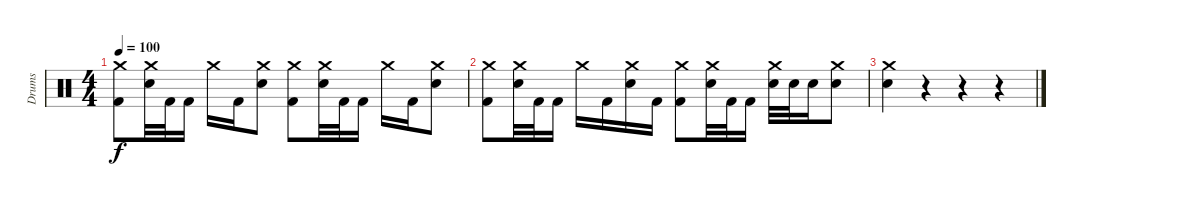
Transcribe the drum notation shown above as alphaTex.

\track ("Drums" "Drums") {instrument percussion}
\staff {score}
\articulation defaults
\ts (4 4)
\tempo 100
\clef neutral
\ks c
("Crash medium (hit)" "Kick (hit) 2").8{dy f} ("Crash medium (hit)" "Electric Snare (hit)").32 "Kick (hit) 2".32 "Kick (hit) 2".16 "Crash medium (hit)".16 "Kick (hit) 2".16 ("Crash medium (hit)" "Electric Snare (hit)").8 ("Crash medium (hit)" "Kick (hit) 2").8 ("Crash medium (hit)" "Electric Snare (hit)").32 "Kick (hit) 2".32 "Kick (hit) 2".16 "Crash medium (hit)".16 "Kick (hit) 2".16 ("Crash medium (hit)" "Electric Snare (hit)").8 |
("Crash medium (hit)" "Kick (hit) 2").8 ("Crash medium (hit)" "Electric Snare (hit)").32 "Kick (hit) 2".32 "Kick (hit) 2".16 "Crash medium (hit)".16 "Kick (hit) 2".16 ("Crash medium (hit)" "Electric Snare (hit)").16 "Kick (hit) 2".16 ("Crash medium (hit)" "Kick (hit) 2").8 ("Crash medium (hit)" "Electric Snare (hit)").32 "Kick (hit) 2".32 "Kick (hit) 2".16 ("Crash medium (hit)" "Electric Snare (hit)").32 "Electric Snare (hit)".32 "Electric Snare (hit)".16 ("Crash medium (hit)" "Electric Snare (hit)").8 |
("Crash medium (hit)" "Electric Snare (hit)").4 r.4 r.4 r.4
